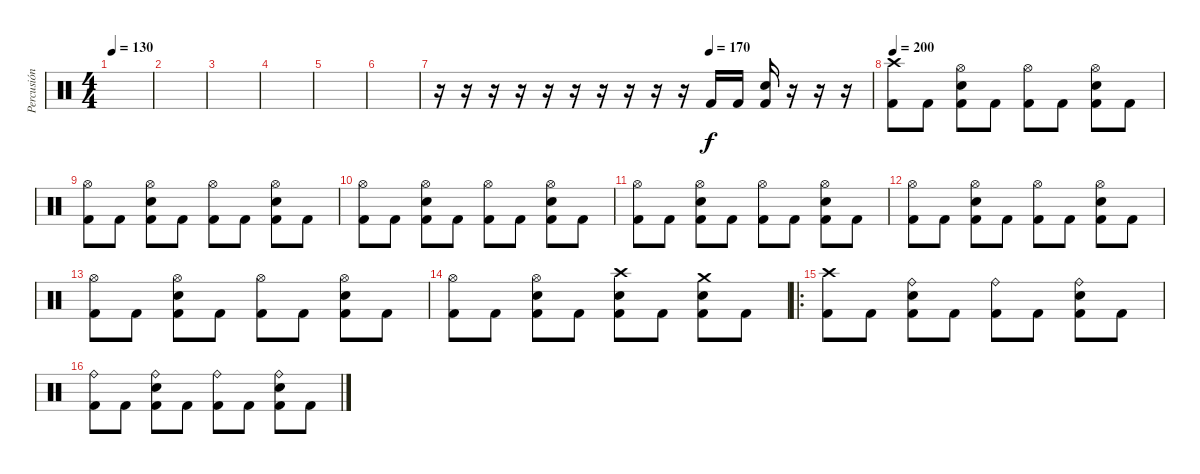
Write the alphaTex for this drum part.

\track ("Percusión" "Percusión") {instrument percussion}
\staff {score}
\articulation defaults
\ts (4 4)
\tempo 130
\clef neutral
\ks c
|
|
|
|
|
|
\tempo (170 0.625)
r.16 r.16 r.16 r.16 r.16 r.16 r.16 r.16 r.16 r.16 "Kick (hit) 2".16 "Kick (hit) 2".16 ("Kick (hit) 2" "Electric Snare (hit)").16 r.16 r.16 r.16 |
\tempo 200
("Crash high (hit)" "Kick (hit) 2").8 "Kick (hit) 2".8 ("Hi-Hat (open)" "Kick (hit) 2" "Electric Snare (hit)").8 "Kick (hit) 2".8 ("Hi-Hat (open)" "Kick (hit) 2").8 "Kick (hit) 2".8 ("Hi-Hat (open)" "Kick (hit) 2" "Electric Snare (hit)").8 "Kick (hit) 2".8 |
("Hi-Hat (open)" "Kick (hit) 2").8 "Kick (hit) 2".8 ("Hi-Hat (open)" "Kick (hit) 2" "Electric Snare (hit)").8 "Kick (hit) 2".8 ("Hi-Hat (open)" "Kick (hit) 2").8 "Kick (hit) 2".8 ("Hi-Hat (open)" "Kick (hit) 2" "Electric Snare (hit)").8 "Kick (hit) 2".8 |
("Hi-Hat (open)" "Kick (hit) 2").8 "Kick (hit) 2".8 ("Hi-Hat (open)" "Kick (hit) 2" "Electric Snare (hit)").8 "Kick (hit) 2".8 ("Hi-Hat (open)" "Kick (hit) 2").8 "Kick (hit) 2".8 ("Hi-Hat (open)" "Kick (hit) 2" "Electric Snare (hit)").8 "Kick (hit) 2".8 |
("Hi-Hat (open)" "Kick (hit) 2").8 "Kick (hit) 2".8 ("Hi-Hat (open)" "Kick (hit) 2" "Electric Snare (hit)").8 "Kick (hit) 2".8 ("Hi-Hat (open)" "Kick (hit) 2").8 "Kick (hit) 2".8 ("Hi-Hat (open)" "Kick (hit) 2" "Electric Snare (hit)").8 "Kick (hit) 2".8 |
("Hi-Hat (open)" "Kick (hit) 2").8 "Kick (hit) 2".8 ("Hi-Hat (open)" "Kick (hit) 2" "Electric Snare (hit)").8 "Kick (hit) 2".8 ("Hi-Hat (open)" "Kick (hit) 2").8 "Kick (hit) 2".8 ("Hi-Hat (open)" "Kick (hit) 2" "Electric Snare (hit)").8 "Kick (hit) 2".8 |
("Hi-Hat (open)" "Kick (hit) 2").8 "Kick (hit) 2".8 ("Hi-Hat (open)" "Kick (hit) 2" "Electric Snare (hit)").8 "Kick (hit) 2".8 ("Hi-Hat (open)" "Kick (hit) 2").8 "Kick (hit) 2".8 ("Hi-Hat (open)" "Kick (hit) 2" "Electric Snare (hit)").8 "Kick (hit) 2".8 |
("Hi-Hat (open)" "Kick (hit) 2").8 "Kick (hit) 2".8 ("Hi-Hat (open)" "Kick (hit) 2" "Electric Snare (hit)").8 "Kick (hit) 2".8 ("Crash high (hit)" "Kick (hit) 2" "Electric Snare (hit)").8 "Kick (hit) 2".8 ("Crash medium (hit)" "Kick (hit) 2" "Electric Snare (hit)").8 "Kick (hit) 2".8 |
\ro
("Crash high (hit)" "Kick (hit) 2").8 "Kick (hit) 2".8 ("Ride (bell)" "Kick (hit) 2" "Electric Snare (hit)").8 "Kick (hit) 2".8 ("Ride (bell)" "Kick (hit) 2").8 "Kick (hit) 2".8 ("Ride (bell)" "Kick (hit) 2" "Electric Snare (hit)").8 "Kick (hit) 2".8 |
("Ride (bell)" "Kick (hit) 2").8 "Kick (hit) 2".8 ("Ride (bell)" "Kick (hit) 2" "Electric Snare (hit)").8 "Kick (hit) 2".8 ("Ride (bell)" "Kick (hit) 2").8 "Kick (hit) 2".8 ("Ride (bell)" "Kick (hit) 2" "Electric Snare (hit)").8 "Kick (hit) 2".8
